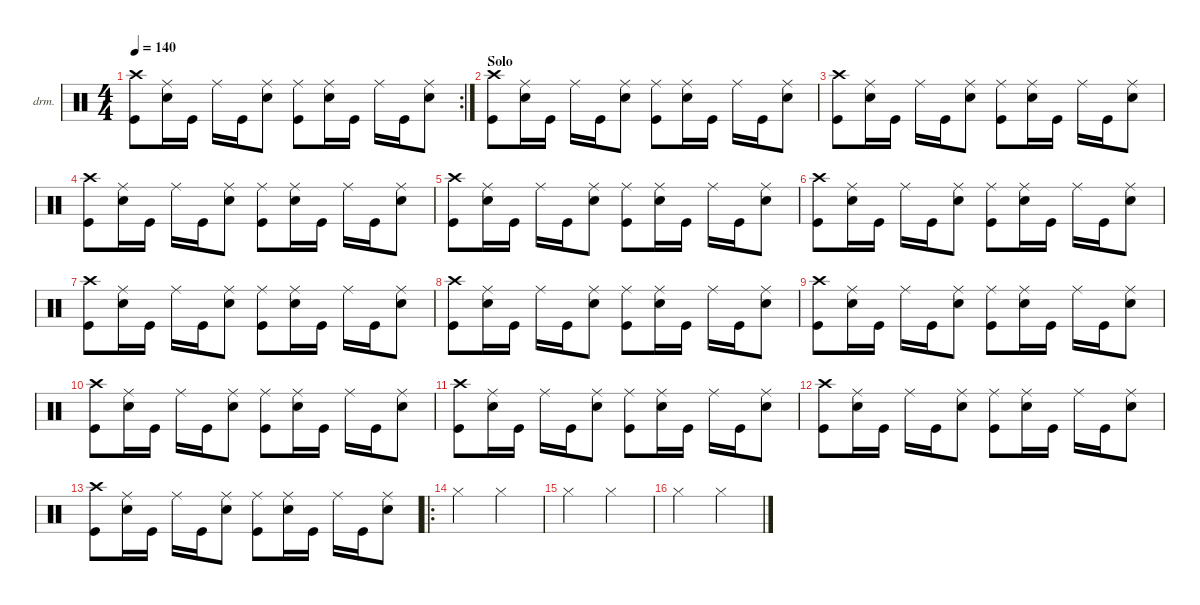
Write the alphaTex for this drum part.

\defaultSystemsLayout 4
\hideDynamics
\bracketExtendMode nobrackets
\firstSystemTrackNameOrientation horizontal
\otherSystemsTrackNameOrientation horizontal
\track ("Drumkit" "drm.") {instrument percussion}
\staff {score}
\articulation defaults
\rc 2
\ts (4 4)
\tempo 140
\clef neutral
\ks c
("Crash high (hit)" "Kick (hit)").8{dy f} ("Ride (middle)" "Snare (hit) 2").16 "Kick (hit)".16 "Ride (middle)".16 "Kick (hit)".16 ("Ride (middle)" "Snare (hit) 2").8 ("Ride (middle)" "Kick (hit)").8 ("Ride (middle)" "Snare (hit) 2").16 "Kick (hit)".16 "Ride (middle)".16 "Kick (hit)".16 ("Ride (middle)" "Snare (hit) 2").8 |
\section ("" "Solo")
("Crash high (hit)" "Kick (hit)").8 ("Ride (middle)" "Snare (hit) 2").16 "Kick (hit)".16 "Ride (middle)".16 "Kick (hit)".16 ("Ride (middle)" "Snare (hit) 2").8 ("Ride (middle)" "Kick (hit)").8 ("Ride (middle)" "Snare (hit) 2").16 "Kick (hit)".16 "Ride (middle)".16 "Kick (hit)".16 ("Ride (middle)" "Snare (hit) 2").8 |
("Crash high (hit)" "Kick (hit)").8 ("Ride (middle)" "Snare (hit) 2").16 "Kick (hit)".16 "Ride (middle)".16 "Kick (hit)".16 ("Ride (middle)" "Snare (hit) 2").8 ("Ride (middle)" "Kick (hit)").8 ("Ride (middle)" "Snare (hit) 2").16 "Kick (hit)".16 "Ride (middle)".16 "Kick (hit)".16 ("Ride (middle)" "Snare (hit) 2").8 |
("Crash high (hit)" "Kick (hit)").8 ("Ride (middle)" "Snare (hit) 2").16 "Kick (hit)".16 "Ride (middle)".16 "Kick (hit)".16 ("Ride (middle)" "Snare (hit) 2").8 ("Ride (middle)" "Kick (hit)").8 ("Ride (middle)" "Snare (hit) 2").16 "Kick (hit)".16 "Ride (middle)".16 "Kick (hit)".16 ("Ride (middle)" "Snare (hit) 2").8 |
("Crash high (hit)" "Kick (hit)").8 ("Ride (middle)" "Snare (hit) 2").16 "Kick (hit)".16 "Ride (middle)".16 "Kick (hit)".16 ("Ride (middle)" "Snare (hit) 2").8 ("Ride (middle)" "Kick (hit)").8 ("Ride (middle)" "Snare (hit) 2").16 "Kick (hit)".16 "Ride (middle)".16 "Kick (hit)".16 ("Ride (middle)" "Snare (hit) 2").8 |
("Crash high (hit)" "Kick (hit)").8 ("Ride (middle)" "Snare (hit) 2").16 "Kick (hit)".16 "Ride (middle)".16 "Kick (hit)".16 ("Ride (middle)" "Snare (hit) 2").8 ("Ride (middle)" "Kick (hit)").8 ("Ride (middle)" "Snare (hit) 2").16 "Kick (hit)".16 "Ride (middle)".16 "Kick (hit)".16 ("Ride (middle)" "Snare (hit) 2").8 |
("Crash high (hit)" "Kick (hit)").8 ("Ride (middle)" "Snare (hit) 2").16 "Kick (hit)".16 "Ride (middle)".16 "Kick (hit)".16 ("Ride (middle)" "Snare (hit) 2").8 ("Ride (middle)" "Kick (hit)").8 ("Ride (middle)" "Snare (hit) 2").16 "Kick (hit)".16 "Ride (middle)".16 "Kick (hit)".16 ("Ride (middle)" "Snare (hit) 2").8 |
("Crash high (hit)" "Kick (hit)").8 ("Ride (middle)" "Snare (hit) 2").16 "Kick (hit)".16 "Ride (middle)".16 "Kick (hit)".16 ("Ride (middle)" "Snare (hit) 2").8 ("Ride (middle)" "Kick (hit)").8 ("Ride (middle)" "Snare (hit) 2").16 "Kick (hit)".16 "Ride (middle)".16 "Kick (hit)".16 ("Ride (middle)" "Snare (hit) 2").8 |
("Crash high (hit)" "Kick (hit)").8 ("Ride (middle)" "Snare (hit) 2").16 "Kick (hit)".16 "Ride (middle)".16 "Kick (hit)".16 ("Ride (middle)" "Snare (hit) 2").8 ("Ride (middle)" "Kick (hit)").8 ("Ride (middle)" "Snare (hit) 2").16 "Kick (hit)".16 "Ride (middle)".16 "Kick (hit)".16 ("Ride (middle)" "Snare (hit) 2").8 |
("Crash high (hit)" "Kick (hit)").8 ("Ride (middle)" "Snare (hit) 2").16 "Kick (hit)".16 "Ride (middle)".16 "Kick (hit)".16 ("Ride (middle)" "Snare (hit) 2").8 ("Ride (middle)" "Kick (hit)").8 ("Ride (middle)" "Snare (hit) 2").16 "Kick (hit)".16 "Ride (middle)".16 "Kick (hit)".16 ("Ride (middle)" "Snare (hit) 2").8 |
("Crash high (hit)" "Kick (hit)").8 ("Ride (middle)" "Snare (hit) 2").16 "Kick (hit)".16 "Ride (middle)".16 "Kick (hit)".16 ("Ride (middle)" "Snare (hit) 2").8 ("Ride (middle)" "Kick (hit)").8 ("Ride (middle)" "Snare (hit) 2").16 "Kick (hit)".16 "Ride (middle)".16 "Kick (hit)".16 ("Ride (middle)" "Snare (hit) 2").8 |
("Crash high (hit)" "Kick (hit)").8 ("Ride (middle)" "Snare (hit) 2").16 "Kick (hit)".16 "Ride (middle)".16 "Kick (hit)".16 ("Ride (middle)" "Snare (hit) 2").8 ("Ride (middle)" "Kick (hit)").8 ("Ride (middle)" "Snare (hit) 2").16 "Kick (hit)".16 "Ride (middle)".16 "Kick (hit)".16 ("Ride (middle)" "Snare (hit) 2").8 |
("Crash high (hit)" "Kick (hit)").8 ("Ride (middle)" "Snare (hit) 2").16 "Kick (hit)".16 "Ride (middle)".16 "Kick (hit)".16 ("Ride (middle)" "Snare (hit) 2").8 ("Ride (middle)" "Kick (hit)").8 ("Ride (middle)" "Snare (hit) 2").16 "Kick (hit)".16 "Ride (middle)".16 "Kick (hit)".16 ("Ride (middle)" "Snare (hit) 2").8 |
\ro "Hi-Hat (closed)".2{dy mf} "Hi-Hat (closed)".2
|
"Hi-Hat (closed)".2 "Hi-Hat (closed)".2 |
"Hi-Hat (closed)".2 "Hi-Hat (closed)".2
